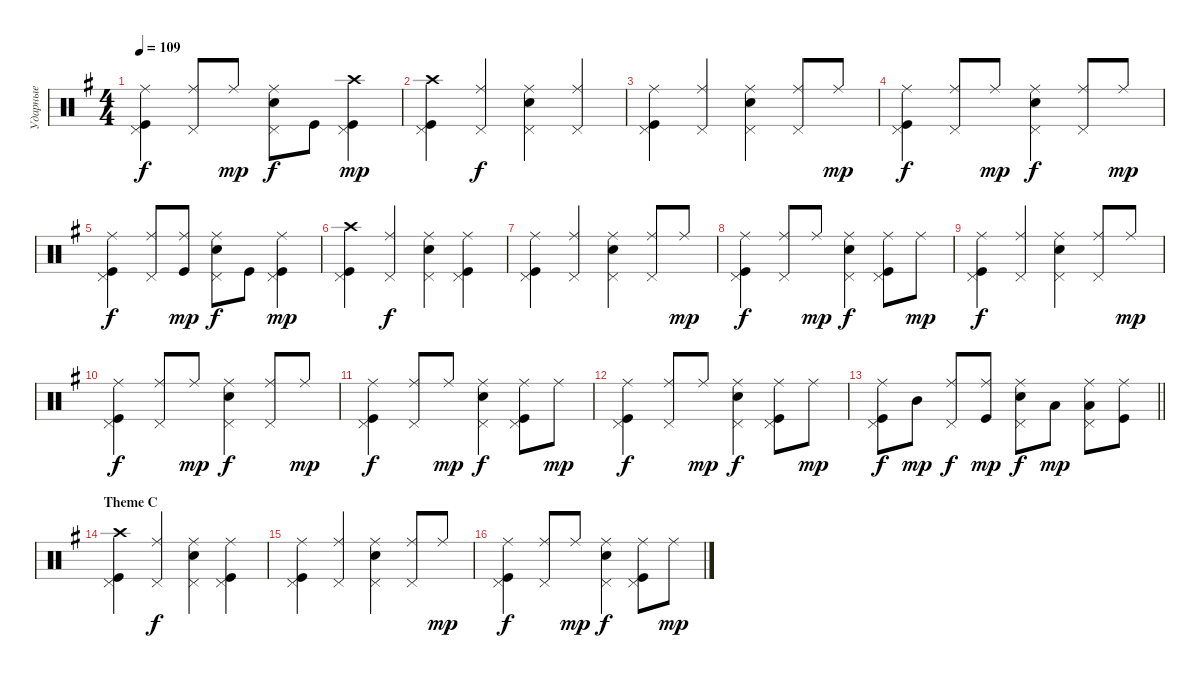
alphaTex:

\track ("Ударные" "Ударные") {instrument percussion}
\staff {score}
\articulation defaults
\ts (4 4)
\tempo 109
\clef neutral
\ks eminor
("Ride (middle)" "Pedal Hi-Hat (hit)" "Kick (hit)").4{dy f} ("Ride (middle)" "Pedal Hi-Hat (hit)").8 "Ride (middle)".8{dy mp} ("Ride (middle)" "Pedal Hi-Hat (hit)" "Snare (hit) 2").8{dy f} "Kick (hit)".8 ("Crash high (hit)" "Pedal Hi-Hat (hit)" "Kick (hit)").4{dy mp} |
("Kick (hit)" "Crash high (hit)" "Pedal Hi-Hat (hit)").4 ("Ride (middle)" "Pedal Hi-Hat (hit)").4{dy f} ("Ride (middle)" "Pedal Hi-Hat (hit)" "Snare (hit) 2").4 ("Ride (middle)" "Pedal Hi-Hat (hit)").4 |
("Ride (middle)" "Pedal Hi-Hat (hit)" "Kick (hit)").4 ("Ride (middle)" "Pedal Hi-Hat (hit)").4 ("Ride (middle)" "Pedal Hi-Hat (hit)" "Snare (hit) 2").4 ("Ride (middle)" "Pedal Hi-Hat (hit)").8 "Ride (middle)".8{dy mp} |
("Ride (middle)" "Pedal Hi-Hat (hit)" "Kick (hit)").4{dy f} ("Ride (middle)" "Pedal Hi-Hat (hit)").8 "Ride (middle)".8{dy mp} ("Ride (middle)" "Pedal Hi-Hat (hit)" "Snare (hit) 2").4{dy f} ("Ride (middle)" "Pedal Hi-Hat (hit)").8 "Ride (middle)".8{dy mp} |
("Ride (middle)" "Pedal Hi-Hat (hit)" "Kick (hit)").4{dy f} ("Ride (middle)" "Pedal Hi-Hat (hit)").8 ("Ride (middle)" "Kick (hit)").8{dy mp} ("Ride (middle)" "Pedal Hi-Hat (hit)" "Snare (hit) 2").8{dy f} "Kick (hit)".8 ("Ride (middle)" "Pedal Hi-Hat (hit)" "Kick (hit)").4{dy mp} |
("Kick (hit)" "Crash high (hit)" "Pedal Hi-Hat (hit)").4 ("Ride (middle)" "Pedal Hi-Hat (hit)").4{dy f} ("Ride (middle)" "Pedal Hi-Hat (hit)" "Snare (hit) 2").4 ("Ride (middle)" "Pedal Hi-Hat (hit)" "Kick (hit)").4 |
("Ride (middle)" "Pedal Hi-Hat (hit)" "Kick (hit)").4 ("Ride (middle)" "Pedal Hi-Hat (hit)").4 ("Ride (middle)" "Pedal Hi-Hat (hit)" "Snare (hit) 2").4 ("Ride (middle)" "Pedal Hi-Hat (hit)").8 "Ride (middle)".8{dy mp} |
("Ride (middle)" "Pedal Hi-Hat (hit)" "Kick (hit)").4{dy f} ("Ride (middle)" "Pedal Hi-Hat (hit)").8 "Ride (middle)".8{dy mp} ("Ride (middle)" "Pedal Hi-Hat (hit)" "Snare (hit) 2").4{dy f} ("Ride (middle)" "Pedal Hi-Hat (hit)" "Kick (hit)").8 "Ride (middle)".8{dy mp} |
("Ride (middle)" "Pedal Hi-Hat (hit)" "Kick (hit)").4{dy f} ("Ride (middle)" "Pedal Hi-Hat (hit)").4 ("Ride (middle)" "Pedal Hi-Hat (hit)" "Snare (hit) 2").4 ("Ride (middle)" "Pedal Hi-Hat (hit)").8 "Ride (middle)".8{dy mp} |
("Ride (middle)" "Pedal Hi-Hat (hit)" "Kick (hit)").4{dy f} ("Ride (middle)" "Pedal Hi-Hat (hit)").8 "Ride (middle)".8{dy mp} ("Ride (middle)" "Pedal Hi-Hat (hit)" "Snare (hit) 2").4{dy f} ("Ride (middle)" "Pedal Hi-Hat (hit)").8 "Ride (middle)".8{dy mp} |
("Ride (middle)" "Pedal Hi-Hat (hit)" "Kick (hit)").4{dy f} ("Ride (middle)" "Pedal Hi-Hat (hit)").8 "Ride (middle)".8{dy mp} ("Ride (middle)" "Pedal Hi-Hat (hit)" "Snare (hit) 2").4{dy f} ("Ride (middle)" "Pedal Hi-Hat (hit)" "Kick (hit)").8 "Ride (middle)".8{dy mp} |
("Ride (middle)" "Pedal Hi-Hat (hit)" "Kick (hit)").4{dy f} ("Ride (middle)" "Pedal Hi-Hat (hit)").8 "Ride (middle)".8{dy mp} ("Ride (middle)" "Pedal Hi-Hat (hit)" "Snare (hit) 2").4{dy f} ("Ride (middle)" "Pedal Hi-Hat (hit)" "Kick (hit)").8 "Ride (middle)".8{dy mp} |
\barLineRight lightlight
("Ride (middle)" "Pedal Hi-Hat (hit)" "Kick (hit)").8{dy f} "Mid Tom (hit)".8{dy mp} ("Ride (middle)" "Pedal Hi-Hat (hit)").8{dy f} ("Ride (middle)" "Kick (hit)").8{dy mp} ("Ride (middle)" "Pedal Hi-Hat (hit)" "Snare (hit) 2").8{dy f} "Low Tom (hit)".8{dy mp} ("Ride (middle)" "Pedal Hi-Hat (hit)" "Low Tom (hit)").8 ("Ride (middle)" "Kick (hit)").8 |
\section ("" "Theme С")
("Kick (hit)" "Crash high (hit)" "Pedal Hi-Hat (hit)").4 ("Ride (middle)" "Pedal Hi-Hat (hit)").4{dy f} ("Ride (middle)" "Pedal Hi-Hat (hit)" "Snare (hit) 2").4 ("Ride (middle)" "Pedal Hi-Hat (hit)" "Kick (hit)").4 |
("Ride (middle)" "Pedal Hi-Hat (hit)" "Kick (hit)").4 ("Ride (middle)" "Pedal Hi-Hat (hit)").4 ("Ride (middle)" "Pedal Hi-Hat (hit)" "Snare (hit) 2").4 ("Ride (middle)" "Pedal Hi-Hat (hit)").8 "Ride (middle)".8{dy mp} |
("Ride (middle)" "Pedal Hi-Hat (hit)" "Kick (hit)").4{dy f} ("Ride (middle)" "Pedal Hi-Hat (hit)").8 "Ride (middle)".8{dy mp} ("Ride (middle)" "Pedal Hi-Hat (hit)" "Snare (hit) 2").4{dy f} ("Ride (middle)" "Pedal Hi-Hat (hit)" "Kick (hit)").8 "Ride (middle)".8{dy mp}
